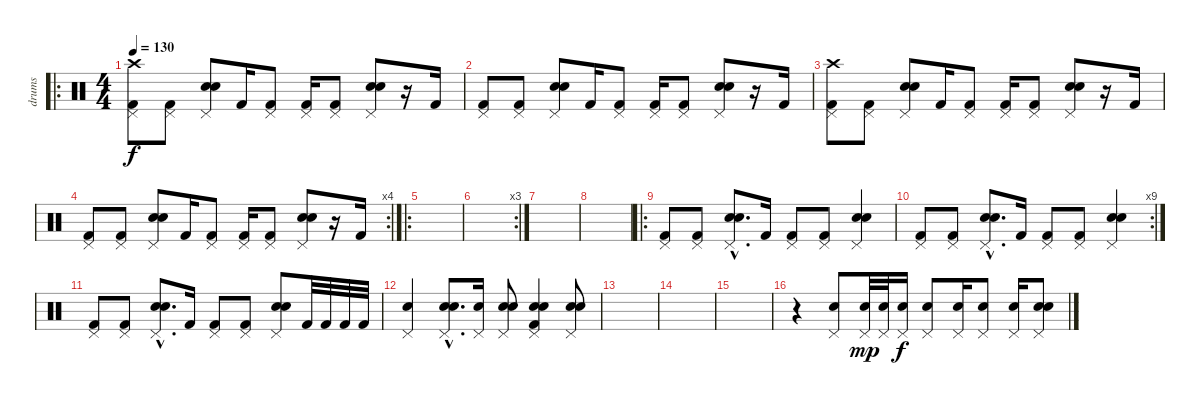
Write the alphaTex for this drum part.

\track ("drums" "drums") {instrument percussion}
\staff {score}
\articulation defaults
\ro
\ts (4 4)
\tempo 130
\clef neutral
\ks c
("Crash high (hit)" "Kick (hit) 2" "Pedal Hi-Hat (hit)").8{dy f} ("Kick (hit) 2" "Pedal Hi-Hat (hit)").8 ("Electric Snare (hit)" "Snare (hit) 2" "Pedal Hi-Hat (hit)").8 "Kick (hit) 2".16 ("Kick (hit) 2" "Pedal Hi-Hat (hit)").8 ("Kick (hit) 2" "Pedal Hi-Hat (hit)").16 ("Kick (hit) 2" "Pedal Hi-Hat (hit)").8 ("Electric Snare (hit)" "Snare (hit) 2" "Pedal Hi-Hat (hit)").8 r.16 "Kick (hit) 2".16 |
("Kick (hit) 2" "Pedal Hi-Hat (hit)").8 ("Kick (hit) 2" "Pedal Hi-Hat (hit)").8 ("Electric Snare (hit)" "Snare (hit) 2" "Pedal Hi-Hat (hit)").8 "Kick (hit) 2".16 ("Kick (hit) 2" "Pedal Hi-Hat (hit)").8 ("Kick (hit) 2" "Pedal Hi-Hat (hit)").16 ("Kick (hit) 2" "Pedal Hi-Hat (hit)").8 ("Electric Snare (hit)" "Snare (hit) 2" "Pedal Hi-Hat (hit)").8 r.16 "Kick (hit) 2".16 |
("Crash high (hit)" "Kick (hit) 2" "Pedal Hi-Hat (hit)").8 ("Kick (hit) 2" "Pedal Hi-Hat (hit)").8 ("Electric Snare (hit)" "Snare (hit) 2" "Pedal Hi-Hat (hit)").8 "Kick (hit) 2".16 ("Kick (hit) 2" "Pedal Hi-Hat (hit)").8 ("Kick (hit) 2" "Pedal Hi-Hat (hit)").16 ("Kick (hit) 2" "Pedal Hi-Hat (hit)").8 ("Electric Snare (hit)" "Snare (hit) 2" "Pedal Hi-Hat (hit)").8 r.16 "Kick (hit) 2".16 |
\rc 4
("Kick (hit) 2" "Pedal Hi-Hat (hit)").8 ("Kick (hit) 2" "Pedal Hi-Hat (hit)").8 ("Electric Snare (hit)" "Snare (hit) 2" "Pedal Hi-Hat (hit)").8 "Kick (hit) 2".16 ("Kick (hit) 2" "Pedal Hi-Hat (hit)").8 ("Kick (hit) 2" "Pedal Hi-Hat (hit)").16 ("Kick (hit) 2" "Pedal Hi-Hat (hit)").8 ("Electric Snare (hit)" "Snare (hit) 2" "Pedal Hi-Hat (hit)").8 r.16 "Kick (hit) 2".16 |
\ro
|
\rc 3
|
|
|
\ro
("Kick (hit) 2" "Pedal Hi-Hat (hit)").8 ("Kick (hit) 2" "Pedal Hi-Hat (hit)").8 ("Electric Snare (hit)"{hac} "Snare (hit) 2"{hac} "Pedal Hi-Hat (hit)"{hac}).8{d} "Kick (hit) 2".16 ("Kick (hit) 2" "Pedal Hi-Hat (hit)").8 ("Kick (hit) 2" "Pedal Hi-Hat (hit)").8 ("Electric Snare (hit)" "Snare (hit) 2" "Pedal Hi-Hat (hit)").4 |
\rc 9
("Kick (hit) 2" "Pedal Hi-Hat (hit)").8 ("Kick (hit) 2" "Pedal Hi-Hat (hit)").8 ("Electric Snare (hit)"{hac} "Snare (hit) 2"{hac} "Pedal Hi-Hat (hit)"{hac}).8{d} "Kick (hit) 2".16 ("Kick (hit) 2" "Pedal Hi-Hat (hit)").8 ("Kick (hit) 2" "Pedal Hi-Hat (hit)").8 ("Electric Snare (hit)" "Snare (hit) 2" "Pedal Hi-Hat (hit)").4 |
("Kick (hit) 2" "Pedal Hi-Hat (hit)").8 ("Kick (hit) 2" "Pedal Hi-Hat (hit)").8 ("Electric Snare (hit)"{hac} "Snare (hit) 2"{hac} "Pedal Hi-Hat (hit)"{hac}).8{d} "Kick (hit) 2".16 ("Kick (hit) 2" "Pedal Hi-Hat (hit)").8 ("Kick (hit) 2" "Pedal Hi-Hat (hit)").8 ("Electric Snare (hit)" "Snare (hit) 2" "Pedal Hi-Hat (hit)").8 "Kick (hit) 2".32 "Kick (hit) 2".32 "Kick (hit) 2".32 "Kick (hit) 2".32 |
("Snare (hit) 2" "Pedal Hi-Hat (hit)").4 ("Electric Snare (hit)"{hac} "Snare (hit) 2"{hac} "Pedal Hi-Hat (hit)"{hac}).8{d} ("Electric Snare (hit)" "Pedal Hi-Hat (hit)").16 ("Electric Snare (hit)" "Snare (hit) 2" "Pedal Hi-Hat (hit)").8 ("Electric Snare (hit)" "Snare (hit) 2" "Kick (hit) 2" "Pedal Hi-Hat (hit)").4 ("Snare (hit) 2" "Electric Snare (hit)" "Pedal Hi-Hat (hit)").8 |
|
|
|
r.4 ("Electric Snare (hit)" "Pedal Hi-Hat (hit)").8 ("Electric Snare (hit)" "Pedal Hi-Hat (hit)").32{dy mp} ("Electric Snare (hit)" "Pedal Hi-Hat (hit)").32 ("Electric Snare (hit)" "Pedal Hi-Hat (hit)").16{dy f} ("Electric Snare (hit)" "Pedal Hi-Hat (hit)").8 ("Electric Snare (hit)" "Pedal Hi-Hat (hit)").16 ("Electric Snare (hit)" "Pedal Hi-Hat (hit)").8 ("Electric Snare (hit)" "Pedal Hi-Hat (hit)").16 ("Snare (hit) 2" "Electric Snare (hit)" "Pedal Hi-Hat (hit)").8
